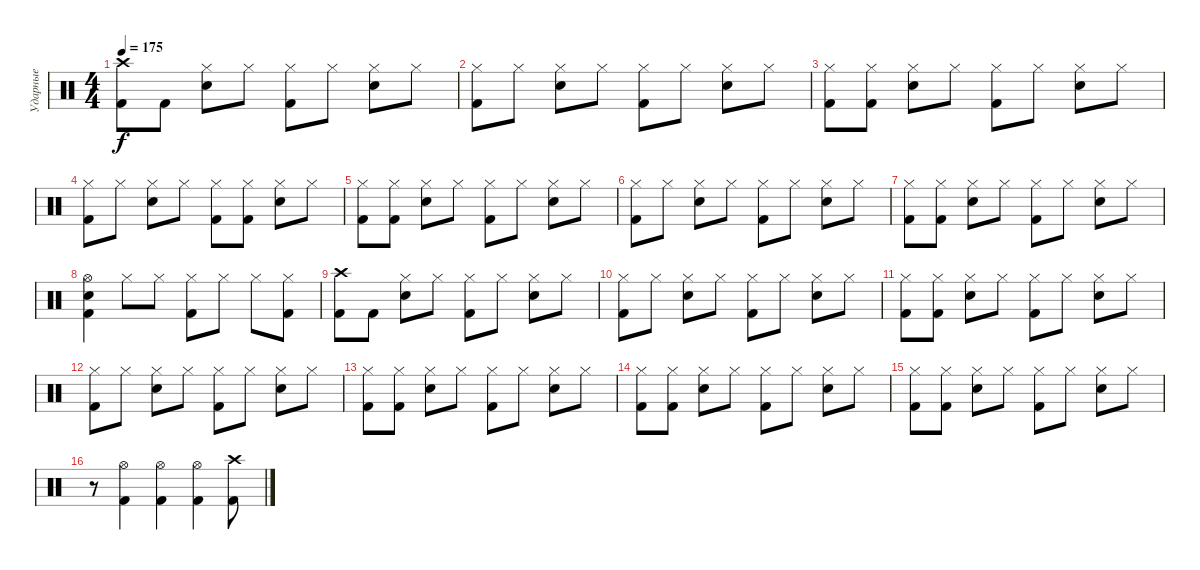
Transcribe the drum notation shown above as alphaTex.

\track ("Ударные" "Ударные") {instrument percussion}
\staff
\articulation defaults
\ts (4 4)
\tempo 175
\clef neutral
\ks c
("Kick (hit) 2" "Crash high (hit)").8{dy f} "Kick (hit) 2".8 ("Snare (hit) 2" "Hi-Hat (closed)").8 "Hi-Hat (closed)".8 ("Kick (hit) 2" "Hi-Hat (closed)").8 "Hi-Hat (closed)".8 ("Snare (hit) 2" "Hi-Hat (closed)").8 "Hi-Hat (closed)".8 |
("Kick (hit) 2" "Hi-Hat (closed)").8 "Hi-Hat (closed)".8 ("Snare (hit) 2" "Hi-Hat (closed)").8 "Hi-Hat (closed)".8 ("Kick (hit) 2" "Hi-Hat (closed)").8 "Hi-Hat (closed)".8 ("Snare (hit) 2" "Hi-Hat (closed)").8 "Hi-Hat (closed)".8 |
("Kick (hit) 2" "Hi-Hat (closed)").8 ("Kick (hit) 2" "Hi-Hat (closed)").8 ("Snare (hit) 2" "Hi-Hat (closed)").8 "Hi-Hat (closed)".8 ("Kick (hit) 2" "Hi-Hat (closed)").8 "Hi-Hat (closed)".8 ("Snare (hit) 2" "Hi-Hat (closed)").8 "Hi-Hat (closed)".8 |
("Kick (hit) 2" "Hi-Hat (closed)").8 "Hi-Hat (closed)".8 ("Snare (hit) 2" "Hi-Hat (closed)").8 "Hi-Hat (closed)".8 ("Kick (hit) 2" "Hi-Hat (closed)").8 ("Kick (hit) 2" "Hi-Hat (closed)").8 ("Snare (hit) 2" "Hi-Hat (closed)").8 "Hi-Hat (closed)".8 |
("Kick (hit) 2" "Hi-Hat (closed)").8 ("Kick (hit) 2" "Hi-Hat (closed)").8 ("Snare (hit) 2" "Hi-Hat (closed)").8 "Hi-Hat (closed)".8 ("Kick (hit) 2" "Hi-Hat (closed)").8 "Hi-Hat (closed)".8 ("Snare (hit) 2" "Hi-Hat (closed)").8 "Hi-Hat (closed)".8 |
("Kick (hit) 2" "Hi-Hat (closed)").8 "Hi-Hat (closed)".8 ("Snare (hit) 2" "Hi-Hat (closed)").8 "Hi-Hat (closed)".8 ("Kick (hit) 2" "Hi-Hat (closed)").8 "Hi-Hat (closed)".8 ("Snare (hit) 2" "Hi-Hat (closed)").8 "Hi-Hat (closed)".8 |
("Kick (hit) 2" "Hi-Hat (closed)").8 ("Kick (hit) 2" "Hi-Hat (closed)").8 ("Snare (hit) 2" "Hi-Hat (closed)").8 "Hi-Hat (closed)".8 ("Kick (hit) 2" "Hi-Hat (closed)").8 "Hi-Hat (closed)".8 ("Snare (hit) 2" "Hi-Hat (closed)").8 "Hi-Hat (closed)".8 |
("Kick (hit) 2" "Snare (hit) 2" "Hi-Hat (open)").4 "Hi-Hat (closed)".8 "Hi-Hat (closed)".8 ("Kick (hit) 2" "Hi-Hat (closed)").8 "Hi-Hat (closed)".8 "Hi-Hat (closed)".8 ("Kick (hit) 2" "Hi-Hat (closed)").8 |
("Kick (hit) 2" "Crash high (hit)").8 "Kick (hit) 2".8 ("Snare (hit) 2" "Hi-Hat (closed)").8 "Hi-Hat (closed)".8 ("Kick (hit) 2" "Hi-Hat (closed)").8 "Hi-Hat (closed)".8 ("Snare (hit) 2" "Hi-Hat (closed)").8 "Hi-Hat (closed)".8 |
("Kick (hit) 2" "Hi-Hat (closed)").8 "Hi-Hat (closed)".8 ("Snare (hit) 2" "Hi-Hat (closed)").8 "Hi-Hat (closed)".8 ("Kick (hit) 2" "Hi-Hat (closed)").8 "Hi-Hat (closed)".8 ("Snare (hit) 2" "Hi-Hat (closed)").8 "Hi-Hat (closed)".8 |
("Kick (hit) 2" "Hi-Hat (closed)").8 ("Kick (hit) 2" "Hi-Hat (closed)").8 ("Snare (hit) 2" "Hi-Hat (closed)").8 "Hi-Hat (closed)".8 ("Kick (hit) 2" "Hi-Hat (closed)").8 "Hi-Hat (closed)".8 ("Snare (hit) 2" "Hi-Hat (closed)").8 "Hi-Hat (closed)".8 |
("Kick (hit) 2" "Hi-Hat (closed)").8 "Hi-Hat (closed)".8 ("Snare (hit) 2" "Hi-Hat (closed)").8 "Hi-Hat (closed)".8 ("Kick (hit) 2" "Hi-Hat (closed)").8 "Hi-Hat (closed)".8 ("Snare (hit) 2" "Hi-Hat (closed)").8 "Hi-Hat (closed)".8 |
("Kick (hit) 2" "Hi-Hat (closed)").8 ("Kick (hit) 2" "Hi-Hat (closed)").8 ("Snare (hit) 2" "Hi-Hat (closed)").8 "Hi-Hat (closed)".8 ("Kick (hit) 2" "Hi-Hat (closed)").8 "Hi-Hat (closed)".8 ("Snare (hit) 2" "Hi-Hat (closed)").8 "Hi-Hat (closed)".8 |
("Kick (hit) 2" "Hi-Hat (closed)").8 ("Kick (hit) 2" "Hi-Hat (closed)").8 ("Snare (hit) 2" "Hi-Hat (closed)").8 "Hi-Hat (closed)".8 ("Kick (hit) 2" "Hi-Hat (closed)").8 "Hi-Hat (closed)".8 ("Snare (hit) 2" "Hi-Hat (closed)").8 "Hi-Hat (closed)".8 |
("Kick (hit) 2" "Hi-Hat (closed)").8 ("Kick (hit) 2" "Hi-Hat (closed)").8 ("Snare (hit) 2" "Hi-Hat (closed)").8 "Hi-Hat (closed)".8 ("Kick (hit) 2" "Hi-Hat (closed)").8 "Hi-Hat (closed)".8 ("Snare (hit) 2" "Hi-Hat (closed)").8 "Hi-Hat (closed)".8 |
r.8 ("Kick (hit) 2" "Hi-Hat (open)").4 ("Kick (hit) 2" "Hi-Hat (open)").4 ("Kick (hit) 2" "Hi-Hat (open)").4 ("Kick (hit) 2" "Crash high (hit)").8
